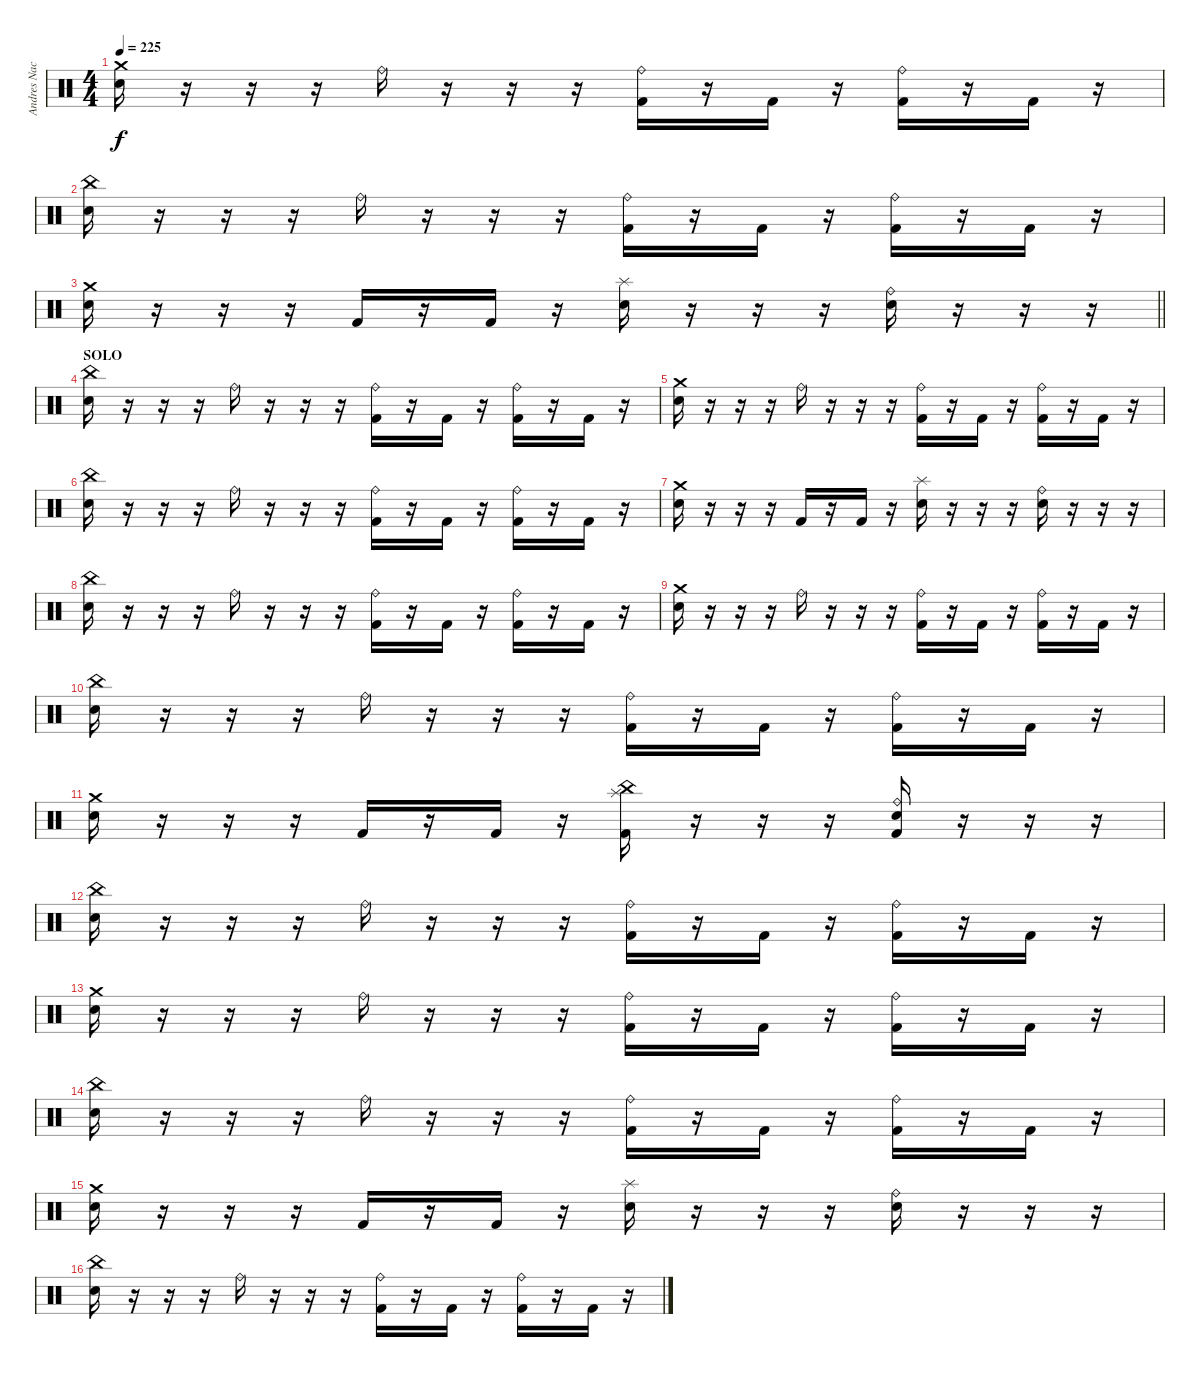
\track ("Andres Nacrur" "Andres Nac") {instrument percussion}
\staff {score}
\articulation defaults
\ts (4 4)
\tempo 225
\clef neutral
\ks c
("Crash medium (hit)" "Snare (hit) 2").16{dy f} r.16 r.16 r.16 "Ride (bell)".16 r.16 r.16 r.16 ("Ride (bell)" "Kick (hit) 2").16 r.16 "Kick (hit) 2".16 r.16 ("Ride (bell)" "Kick (hit) 2").16 r.16 "Kick (hit) 2".16 r.16 |
("China (hit)" "Snare (hit) 2").16 r.16 r.16 r.16 "Ride (bell)".16 r.16 r.16 r.16 ("Ride (bell)" "Kick (hit) 2").16 r.16 "Kick (hit) 2".16 r.16 ("Ride (bell)" "Kick (hit) 2").16 r.16 "Kick (hit) 2".16 r.16 |
\barLineRight lightlight
("Crash medium (hit)" "Snare (hit) 2").16 r.16 r.16 r.16 "Kick (hit) 2".16 r.16 "Kick (hit) 2".16 r.16 ("Splash (hit)" "Snare (hit) 2").16 r.16 r.16 r.16 ("Ride (bell)" "Snare (hit) 2").16 r.16 r.16 r.16 |
\section ("" "SOLO")
("China (hit)" "Snare (hit) 2").16 r.16 r.16 r.16 "Ride (bell)".16 r.16 r.16 r.16 ("Ride (bell)" "Kick (hit) 2").16 r.16 "Kick (hit) 2".16 r.16 ("Ride (bell)" "Kick (hit) 2").16 r.16 "Kick (hit) 2".16 r.16 |
("Crash medium (hit)" "Snare (hit) 2").16 r.16 r.16 r.16 "Ride (bell)".16 r.16 r.16 r.16 ("Ride (bell)" "Kick (hit) 2").16 r.16 "Kick (hit) 2".16 r.16 ("Ride (bell)" "Kick (hit) 2").16 r.16 "Kick (hit) 2".16 r.16 |
("China (hit)" "Snare (hit) 2").16 r.16 r.16 r.16 "Ride (bell)".16 r.16 r.16 r.16 ("Ride (bell)" "Kick (hit) 2").16 r.16 "Kick (hit) 2".16 r.16 ("Ride (bell)" "Kick (hit) 2").16 r.16 "Kick (hit) 2".16 r.16 |
("Crash medium (hit)" "Snare (hit) 2").16 r.16 r.16 r.16 "Kick (hit) 2".16 r.16 "Kick (hit) 2".16 r.16 ("Splash (hit)" "Snare (hit) 2").16 r.16 r.16 r.16 ("Ride (bell)" "Snare (hit) 2").16 r.16 r.16 r.16 |
("China (hit)" "Snare (hit) 2").16 r.16 r.16 r.16 "Ride (bell)".16 r.16 r.16 r.16 ("Ride (bell)" "Kick (hit) 2").16 r.16 "Kick (hit) 2".16 r.16 ("Ride (bell)" "Kick (hit) 2").16 r.16 "Kick (hit) 2".16 r.16 |
("Crash medium (hit)" "Snare (hit) 2").16 r.16 r.16 r.16 "Ride (bell)".16 r.16 r.16 r.16 ("Ride (bell)" "Kick (hit) 2").16 r.16 "Kick (hit) 2".16 r.16 ("Ride (bell)" "Kick (hit) 2").16 r.16 "Kick (hit) 2".16 r.16 |
("China (hit)" "Snare (hit) 2").16 r.16 r.16 r.16 "Ride (bell)".16 r.16 r.16 r.16 ("Ride (bell)" "Kick (hit) 2").16 r.16 "Kick (hit) 2".16 r.16 ("Ride (bell)" "Kick (hit) 2").16 r.16 "Kick (hit) 2".16 r.16 |
("Crash medium (hit)" "Snare (hit) 2").16 r.16 r.16 r.16 "Kick (hit) 2".16 r.16 "Kick (hit) 2".16 r.16 ("Splash (hit)" "China (hit)" "Kick (hit) 2").16 r.16 r.16 r.16 ("Ride (bell)" "Snare (hit) 2" "Kick (hit) 2").16 r.16 r.16 r.16 |
("China (hit)" "Snare (hit) 2").16 r.16 r.16 r.16 "Ride (bell)".16 r.16 r.16 r.16 ("Ride (bell)" "Kick (hit) 2").16 r.16 "Kick (hit) 2".16 r.16 ("Ride (bell)" "Kick (hit) 2").16 r.16 "Kick (hit) 2".16 r.16 |
("Crash medium (hit)" "Snare (hit) 2").16 r.16 r.16 r.16 "Ride (bell)".16 r.16 r.16 r.16 ("Ride (bell)" "Kick (hit) 2").16 r.16 "Kick (hit) 2".16 r.16 ("Ride (bell)" "Kick (hit) 2").16 r.16 "Kick (hit) 2".16 r.16 |
("China (hit)" "Snare (hit) 2").16 r.16 r.16 r.16 "Ride (bell)".16 r.16 r.16 r.16 ("Ride (bell)" "Kick (hit) 2").16 r.16 "Kick (hit) 2".16 r.16 ("Ride (bell)" "Kick (hit) 2").16 r.16 "Kick (hit) 2".16 r.16 |
("Crash medium (hit)" "Snare (hit) 2").16 r.16 r.16 r.16 "Kick (hit) 2".16 r.16 "Kick (hit) 2".16 r.16 ("Splash (hit)" "Snare (hit) 2").16 r.16 r.16 r.16 ("Ride (bell)" "Snare (hit) 2").16 r.16 r.16 r.16 |
("China (hit)" "Snare (hit) 2").16 r.16 r.16 r.16 "Ride (bell)".16 r.16 r.16 r.16 ("Ride (bell)" "Kick (hit) 2").16 r.16 "Kick (hit) 2".16 r.16 ("Ride (bell)" "Kick (hit) 2").16 r.16 "Kick (hit) 2".16 r.16
